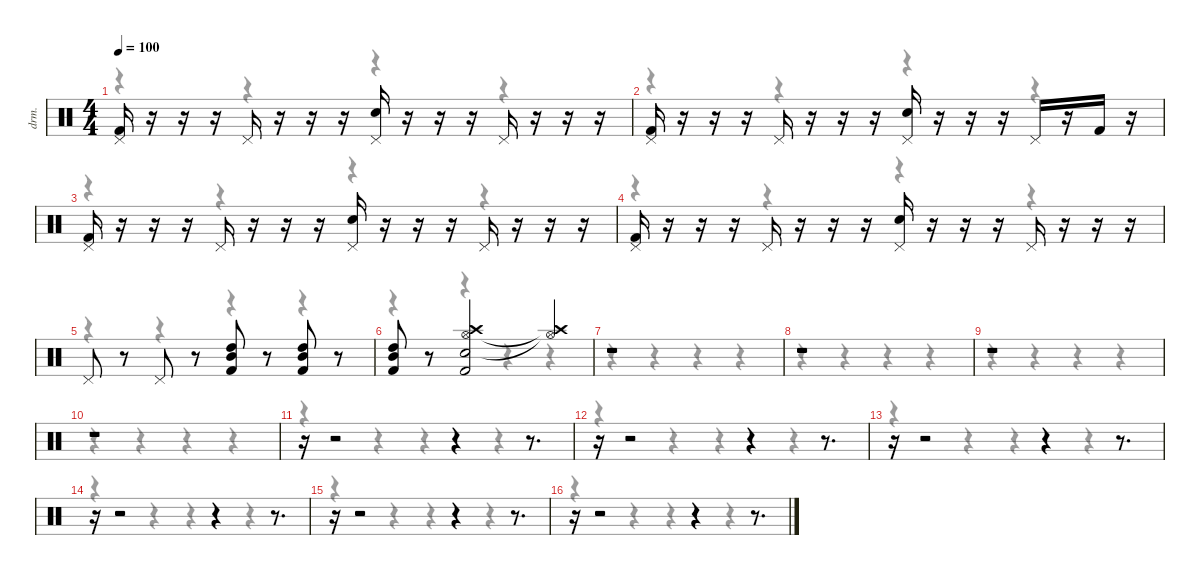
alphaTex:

\defaultSystemsLayout 4
\hideDynamics
\bracketExtendMode nobrackets
\otherSystemsTrackNameOrientation horizontal
\track ("Drums" "drm.") {instrument percussion}
\staff {score}
\articulation defaults
\voice
\ts (4 4)
\tempo 100
\clef neutral
\ks c
("Kick (hit) 2" "Pedal Hi-Hat (hit)").16{dy ff} r.16 r.16 r.16 "Pedal Hi-Hat (hit)".16 r.16 r.16 r.16 ("Snare (hit) 2" "Pedal Hi-Hat (hit)").16 r.16 r.16 r.16 "Pedal Hi-Hat (hit)".16 r.16 r.16 r.16 |
("Kick (hit) 2" "Pedal Hi-Hat (hit)").16 r.16 r.16 r.16 "Pedal Hi-Hat (hit)".16 r.16 r.16 r.16 ("Snare (hit) 2" "Pedal Hi-Hat (hit)").16 r.16 r.16 r.16 "Pedal Hi-Hat (hit)".16 r.16 "Kick (hit) 2".16{dy f} r.16 |
("Kick (hit) 2" "Pedal Hi-Hat (hit)").16{dy ff} r.16 r.16 r.16 "Pedal Hi-Hat (hit)".16 r.16 r.16 r.16 ("Snare (hit) 2" "Pedal Hi-Hat (hit)").16 r.16 r.16 r.16 "Pedal Hi-Hat (hit)".16 r.16 r.16 r.16 |
("Kick (hit) 2" "Pedal Hi-Hat (hit)").16 r.16 r.16 r.16 "Pedal Hi-Hat (hit)".16 r.16 r.16 r.16 ("Snare (hit) 2" "Pedal Hi-Hat (hit)").16 r.16 r.16 r.16 "Pedal Hi-Hat (hit)".16 r.16 r.16 r.16 |
"Pedal Hi-Hat (hit)".8{dy f} r.8 "Pedal Hi-Hat (hit)".8 r.8 ("High Tom (hit)" "Mid Tom (hit)" "Kick (hit) 2").8 r.8 ("High Tom (hit)" "Mid Tom (hit)" "Kick (hit) 2").8 r.8 |
("High Tom (hit)" "Mid Tom (hit)" "Kick (hit) 2").8 r.8 ("Snare (hit) 2" "Hi-Hat (open)" "Crash high (hit)" "Kick (hit) 2").2 ("Hi-Hat (open)"{t} "Crash high (hit)"{t}).4 |
r.1 |
r.1 |
r.1 |
r.1 |
r.16 r.2 r.4 r.8{d} |
r.16 r.2 r.4 r.8{d} |
r.16 r.2 r.4 r.8{d} |
r.16 r.2 r.4 r.8{d} |
r.16 r.2 r.4 r.8{d} |
r.16 r.2 r.4 r.8{d}
\voice
\clef neutral
\ottava regular
\simile none
\ks c
r.4{dy mf} r.4 r.4 r.4 |
r.4 r.4 r.4 r.4 |
r.4 r.4 r.4 r.4 |
r.4 r.4 r.4 r.4 |
r.4 r.4 r.4 r.4 |
r.4 r.4 r.4 r.4 |
r.4 r.4 r.4 r.4 |
r.4 r.4 r.4 r.4 |
r.4 r.4 r.4 r.4 |
r.4 r.4 r.4 r.4 |
r.4 r.4 r.4 r.4 |
r.4 r.4 r.4 r.4 |
r.4 r.4 r.4 r.4 |
r.4 r.4 r.4 r.4 |
r.4 r.4 r.4 r.4 |
r.4 r.4 r.4 r.4
